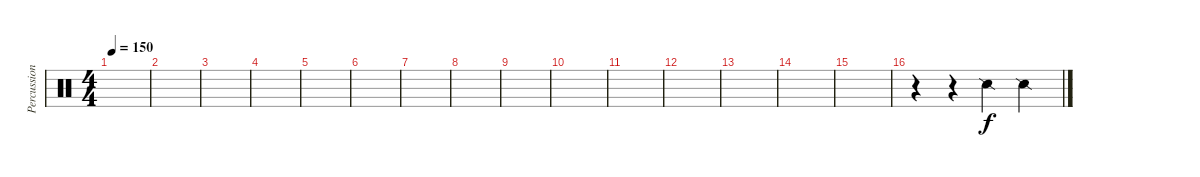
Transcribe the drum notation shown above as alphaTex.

\track ("Percussion" "Percussion") {instrument percussion}
\staff {score}
\articulation defaults
\ts (4 4)
\tempo 150
\clef neutral
\ks c
|
|
|
|
|
|
|
|
|
|
|
|
|
|
|
r.4 r.4 "Snare (side stick) 2".4{dy f} "Snare (side stick) 2".4
